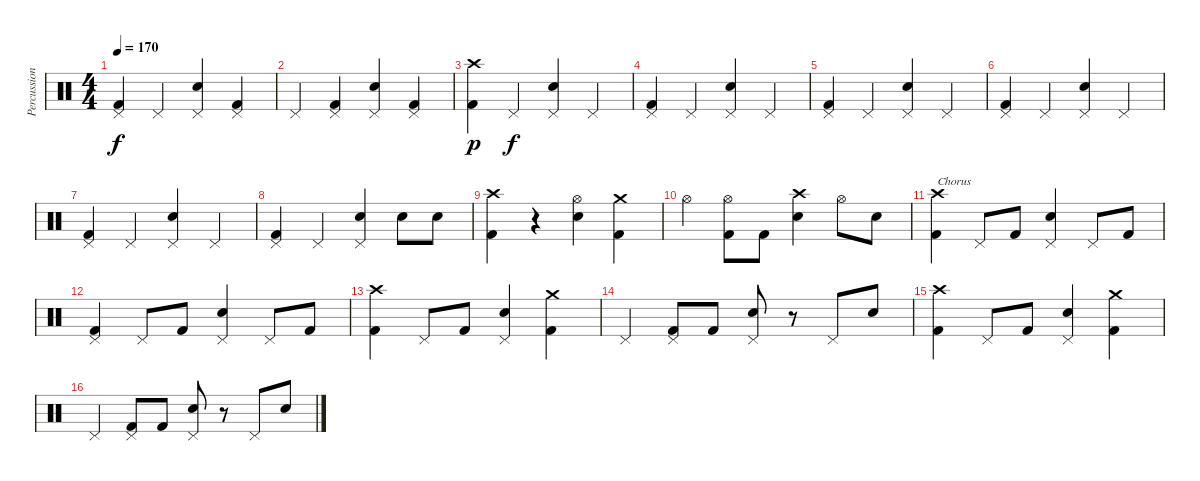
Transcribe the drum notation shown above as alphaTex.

\track ("Percussion" "Percussion") {instrument percussion}
\staff {score}
\articulation defaults
\ts (4 4)
\tempo 170
\clef neutral
\ks c
("Pedal Hi-Hat (hit)" "Kick (hit) 2").4{dy f} "Pedal Hi-Hat (hit)".4 ("Pedal Hi-Hat (hit)" "Snare (hit) 2").4 ("Pedal Hi-Hat (hit)" "Kick (hit) 2").4 |
"Pedal Hi-Hat (hit)".4 ("Pedal Hi-Hat (hit)" "Kick (hit) 2").4 ("Pedal Hi-Hat (hit)" "Snare (hit) 2").4 ("Pedal Hi-Hat (hit)" "Kick (hit) 2").4 |
("Crash high (hit)" "Kick (hit) 2").4{dy p} "Pedal Hi-Hat (hit)".4{dy f} ("Pedal Hi-Hat (hit)" "Snare (hit) 2").4 "Pedal Hi-Hat (hit)".4 |
("Pedal Hi-Hat (hit)" "Kick (hit) 2").4 "Pedal Hi-Hat (hit)".4 ("Pedal Hi-Hat (hit)" "Snare (hit) 2").4 "Pedal Hi-Hat (hit)".4 |
("Pedal Hi-Hat (hit)" "Kick (hit) 2").4 "Pedal Hi-Hat (hit)".4 ("Pedal Hi-Hat (hit)" "Snare (hit) 2").4 "Pedal Hi-Hat (hit)".4 |
("Pedal Hi-Hat (hit)" "Kick (hit) 2").4 "Pedal Hi-Hat (hit)".4 ("Pedal Hi-Hat (hit)" "Snare (hit) 2").4 "Pedal Hi-Hat (hit)".4 |
("Pedal Hi-Hat (hit)" "Kick (hit) 2").4 "Pedal Hi-Hat (hit)".4 ("Pedal Hi-Hat (hit)" "Snare (hit) 2").4 "Pedal Hi-Hat (hit)".4 |
("Pedal Hi-Hat (hit)" "Kick (hit) 2").4 "Pedal Hi-Hat (hit)".4 ("Pedal Hi-Hat (hit)" "Snare (hit) 2").4 "Snare (hit) 2".8 "Snare (hit) 2".8 |
("Crash high (hit)" "Kick (hit) 2").4 r.4 ("Hi-Hat (open)" "Snare (hit) 2").4 ("Crash medium (hit)" "Kick (hit) 2").4 |
"Hi-Hat (open)".4 ("Hi-Hat (open)" "Kick (hit) 2").8 "Kick (hit) 2".8 ("Crash high (hit)" "Snare (hit) 2").4 "Hi-Hat (open)".8 "Snare (hit) 2".8 |
("Crash high (hit)" "Kick (hit) 2").4{txt "Chorus"} "Pedal Hi-Hat (hit)".8 "Kick (hit) 2".8 ("Pedal Hi-Hat (hit)" "Snare (hit) 2").4 "Pedal Hi-Hat (hit)".8 "Kick (hit) 2".8 |
("Pedal Hi-Hat (hit)" "Kick (hit) 2").4 "Pedal Hi-Hat (hit)".8 "Kick (hit) 2".8 ("Pedal Hi-Hat (hit)" "Snare (hit) 2").4 "Pedal Hi-Hat (hit)".8 "Kick (hit) 2".8 |
("Crash high (hit)" "Kick (hit) 2").4 "Pedal Hi-Hat (hit)".8 "Kick (hit) 2".8 ("Pedal Hi-Hat (hit)" "Snare (hit) 2").4 ("Crash medium (hit)" "Kick (hit) 2").4 |
"Pedal Hi-Hat (hit)".4 ("Pedal Hi-Hat (hit)" "Kick (hit) 2").8 "Kick (hit) 2".8 ("Pedal Hi-Hat (hit)" "Snare (hit) 2").8 r.8 "Pedal Hi-Hat (hit)".8 "Snare (hit) 2".8 |
("Crash high (hit)" "Kick (hit) 2").4 "Pedal Hi-Hat (hit)".8 "Kick (hit) 2".8 ("Pedal Hi-Hat (hit)" "Snare (hit) 2").4 ("Crash medium (hit)" "Kick (hit) 2").4 |
"Pedal Hi-Hat (hit)".4 ("Pedal Hi-Hat (hit)" "Kick (hit) 2").8 "Kick (hit) 2".8 ("Pedal Hi-Hat (hit)" "Snare (hit) 2").8 r.8 "Pedal Hi-Hat (hit)".8 "Snare (hit) 2".8
